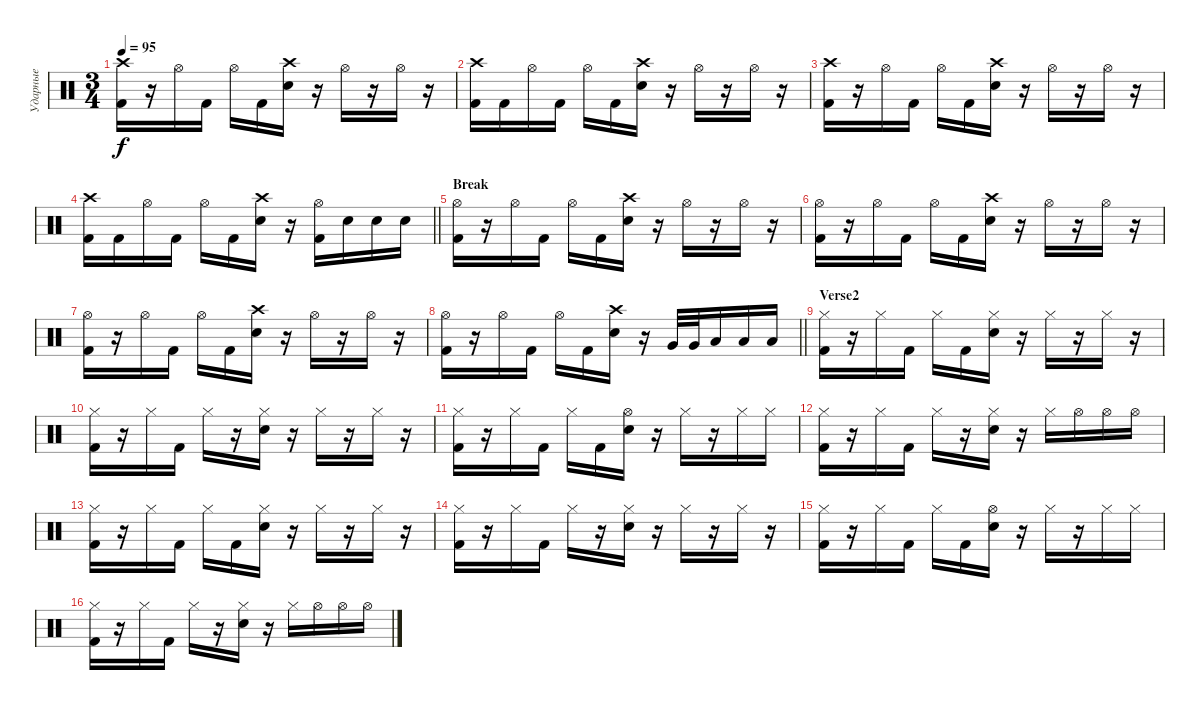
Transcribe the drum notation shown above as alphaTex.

\track ("Ударные" "Ударные") {instrument percussion}
\staff {score}
\articulation defaults
\ts (3 4)
\tempo 95
\clef neutral
\ks c
("Crash high (hit)" "Kick (hit) 2").16{dy f} r.16 "Hi-Hat (open)".16 "Kick (hit) 2".16 "Hi-Hat (open)".16 "Kick (hit) 2".16 ("Crash high (hit)" "Electric Snare (hit)").16 r.16 "Hi-Hat (open)".16 r.16 "Hi-Hat (open)".16 r.16 |
("Crash high (hit)" "Kick (hit) 2").16 "Kick (hit) 2".16 "Hi-Hat (open)".16 "Kick (hit) 2".16 "Hi-Hat (open)".16 "Kick (hit) 2".16 ("Crash high (hit)" "Electric Snare (hit)").16 r.16 "Hi-Hat (open)".16 r.16 "Hi-Hat (open)".16 r.16 |
("Crash high (hit)" "Kick (hit) 2").16 r.16 "Hi-Hat (open)".16 "Kick (hit) 2".16 "Hi-Hat (open)".16 "Kick (hit) 2".16 ("Crash high (hit)" "Electric Snare (hit)").16 r.16 "Hi-Hat (open)".16 r.16 "Hi-Hat (open)".16 r.16 |
\barLineRight lightlight
("Crash high (hit)" "Kick (hit) 2").16 "Kick (hit) 2".16 "Hi-Hat (open)".16 "Kick (hit) 2".16 "Hi-Hat (open)".16 "Kick (hit) 2".16 ("Crash high (hit)" "Electric Snare (hit)").16 r.16 ("Hi-Hat (open)" "Kick (hit) 2").16 "Electric Snare (hit)".16 "Electric Snare (hit)".16 "Electric Snare (hit)".16 |
\section ("" "Break")
("Hi-Hat (open)" "Kick (hit) 2").16 r.16 "Hi-Hat (open)".16 "Kick (hit) 2".16 "Hi-Hat (open)".16 "Kick (hit) 2".16 ("Crash high (hit)" "Electric Snare (hit)").16 r.16 "Hi-Hat (open)".16 r.16 "Hi-Hat (open)".16 r.16 |
("Hi-Hat (open)" "Kick (hit) 2").16 r.16 "Hi-Hat (open)".16 "Kick (hit) 2".16 "Hi-Hat (open)".16 "Kick (hit) 2".16 ("Crash high (hit)" "Electric Snare (hit)").16 r.16 "Hi-Hat (open)".16 r.16 "Hi-Hat (open)".16 r.16 |
("Hi-Hat (open)" "Kick (hit) 2").16 r.16 "Hi-Hat (open)".16 "Kick (hit) 2".16 "Hi-Hat (open)".16 "Kick (hit) 2".16 ("Crash high (hit)" "Electric Snare (hit)").16 r.16 "Hi-Hat (open)".16 r.16 "Hi-Hat (open)".16 r.16 |
\barLineRight lightlight
("Hi-Hat (open)" "Kick (hit) 2").16 r.16 "Hi-Hat (open)".16 "Kick (hit) 2".16 "Hi-Hat (open)".16 "Kick (hit) 2".16 ("Crash high (hit)" "Electric Snare (hit)").16 r.16 "Very Low Tom (hit)".32 "Very Low Tom (hit)".32 "Low Floor Tom (hit)".16 "Low Floor Tom (hit)".16 "Low Floor Tom (hit)".16 |
\section ("" "Verse2")
("Hi-Hat (closed)" "Kick (hit) 2").16 r.16 "Hi-Hat (closed)".16 "Kick (hit) 2".16 "Hi-Hat (closed)".16 "Kick (hit) 2".16 ("Hi-Hat (closed)" "Electric Snare (hit)").16 r.16 "Hi-Hat (closed)".16 r.16 "Hi-Hat (closed)".16 r.16 |
("Hi-Hat (closed)" "Kick (hit) 2").16 r.16 "Hi-Hat (closed)".16 "Kick (hit) 2".16 "Hi-Hat (closed)".16 r.16 ("Hi-Hat (closed)" "Electric Snare (hit)").16 r.16 "Hi-Hat (closed)".16 r.16 "Hi-Hat (closed)".16 r.16 |
("Hi-Hat (closed)" "Kick (hit) 2").16 r.16 "Hi-Hat (closed)".16 "Kick (hit) 2".16 "Hi-Hat (closed)".16 "Kick (hit) 2".16 ("Hi-Hat (open)" "Electric Snare (hit)").16 r.16 "Hi-Hat (closed)".16 r.16 "Hi-Hat (closed)".16 "Hi-Hat (closed)".16 |
("Hi-Hat (closed)" "Kick (hit) 2").16 r.16 "Hi-Hat (closed)".16 "Kick (hit) 2".16 "Hi-Hat (closed)".16 r.16 ("Hi-Hat (closed)" "Electric Snare (hit)").16 r.16 "Hi-Hat (closed)".16 "Hi-Hat (open)".16 "Hi-Hat (open)".16 "Hi-Hat (open)".16 |
("Hi-Hat (closed)" "Kick (hit) 2").16 r.16 "Hi-Hat (closed)".16 "Kick (hit) 2".16 "Hi-Hat (closed)".16 "Kick (hit) 2".16 ("Hi-Hat (closed)" "Electric Snare (hit)").16 r.16 "Hi-Hat (closed)".16 r.16 "Hi-Hat (closed)".16 r.16 |
("Hi-Hat (closed)" "Kick (hit) 2").16 r.16 "Hi-Hat (closed)".16 "Kick (hit) 2".16 "Hi-Hat (closed)".16 r.16 ("Hi-Hat (closed)" "Electric Snare (hit)").16 r.16 "Hi-Hat (closed)".16 r.16 "Hi-Hat (closed)".16 r.16 |
("Hi-Hat (closed)" "Kick (hit) 2").16 r.16 "Hi-Hat (closed)".16 "Kick (hit) 2".16 "Hi-Hat (closed)".16 "Kick (hit) 2".16 ("Hi-Hat (open)" "Electric Snare (hit)").16 r.16 "Hi-Hat (closed)".16 r.16 "Hi-Hat (closed)".16 "Hi-Hat (closed)".16 |
("Hi-Hat (closed)" "Kick (hit) 2").16 r.16 "Hi-Hat (closed)".16 "Kick (hit) 2".16 "Hi-Hat (closed)".16 r.16 ("Hi-Hat (closed)" "Electric Snare (hit)").16 r.16 "Hi-Hat (closed)".16 "Hi-Hat (open)".16 "Hi-Hat (open)".16 "Hi-Hat (open)".16
